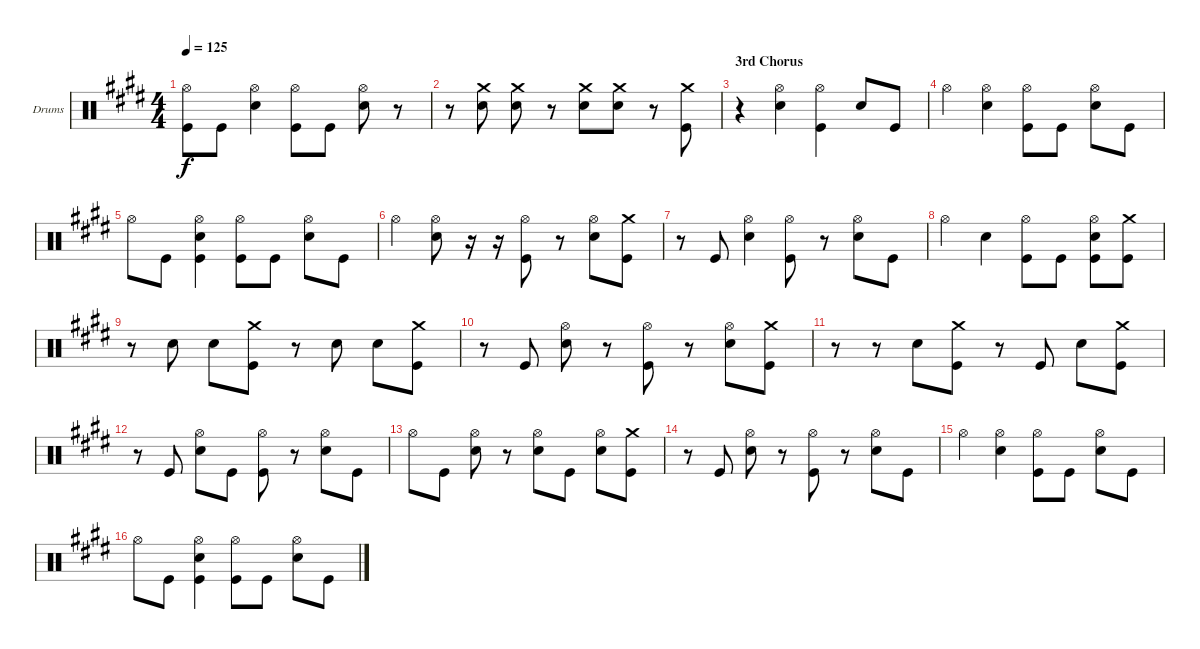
\bracketExtendMode groupsimilarinstruments
\firstSystemTrackNameOrientation horizontal
\otherSystemsTrackNameOrientation horizontal
\track ("Drumkit" "Drums") {instrument percussion}
\staff {score}
\articulation defaults
\ts (4 4)
\tempo 125
\clef neutral
\ks e
("Hi-Hat (open)" "Kick (hit)"{t}).8{dy f} "Kick (hit)".8 ("Hi-Hat (open)" "Snare (hit) 2").4 ("Hi-Hat (open)" "Kick (hit)").8 "Kick (hit)".8 ("Hi-Hat (open)" "Snare (hit) 2").8 r.8 |
r.8 ("Crash medium (hit)" "Snare (hit) 2").8 ("Crash medium (hit)" "Snare (hit) 2").8 r.8 ("Crash medium (hit)" "Snare (hit) 2").8 ("Crash medium (hit)" "Snare (hit) 2").8 r.8 ("Crash medium (hit)" "Kick (hit)").8 |
\section ("" "3rd Chorus")
r.4 ("Hi-Hat (open)" "Snare (hit) 2").4 ("Hi-Hat (open)" "Kick (hit)").4 "Snare (hit) 2".8 "Kick (hit)".8 |
"Hi-Hat (open)".4 ("Hi-Hat (open)" "Snare (hit) 2").4 ("Hi-Hat (open)" "Kick (hit)").8 "Kick (hit)".8 ("Hi-Hat (open)" "Snare (hit) 2").8 "Kick (hit)".8 |
"Hi-Hat (open)".8 "Kick (hit)".8 ("Hi-Hat (open)" "Snare (hit) 2" "Kick (hit)").4 ("Hi-Hat (open)" "Kick (hit)").8 "Kick (hit)".8 ("Hi-Hat (open)" "Snare (hit) 2").8 "Kick (hit)".8 |
"Hi-Hat (open)".4 ("Hi-Hat (open)" "Snare (hit) 2").8 r.16 r.16 ("Hi-Hat (open)" "Kick (hit)").8 r.8 ("Hi-Hat (open)" "Snare (hit) 2").8 ("Crash medium (hit)" "Kick (hit)").8 |
r.8 "Kick (hit)".8 ("Hi-Hat (open)" "Snare (hit) 2").4 ("Hi-Hat (open)" "Kick (hit)").8 r.8 ("Hi-Hat (open)" "Snare (hit) 2").8 "Kick (hit)".8 |
"Hi-Hat (open)".4 "Snare (hit) 2".4 ("Hi-Hat (open)" "Kick (hit)").8 "Kick (hit)".8 ("Hi-Hat (open)" "Snare (hit) 2" "Kick (hit)").8 ("Crash medium (hit)" "Kick (hit)").8 |
r.8 "Snare (hit) 2".8 "Snare (hit) 2".8 ("Crash medium (hit)" "Kick (hit)").8 r.8 "Snare (hit) 2".8 "Snare (hit) 2".8 ("Crash medium (hit)" "Kick (hit)").8 |
r.8 "Kick (hit)".8 ("Hi-Hat (open)" "Snare (hit) 2").8 r.8 ("Hi-Hat (open)" "Kick (hit)").8 r.8 ("Hi-Hat (open)" "Snare (hit) 2").8 ("Crash medium (hit)" "Kick (hit)").8 |
r.8 r.8 "Snare (hit) 2".8 ("Crash medium (hit)" "Kick (hit)").8 r.8 "Kick (hit)".8 "Snare (hit) 2".8 ("Crash medium (hit)" "Kick (hit)").8 |
r.8 "Kick (hit)".8 ("Hi-Hat (open)" "Snare (hit) 2").8 "Kick (hit)".8 ("Hi-Hat (open)" "Kick (hit)").8 r.8 ("Hi-Hat (open)" "Snare (hit) 2").8 "Kick (hit)".8 |
"Hi-Hat (open)".8 "Kick (hit)".8 ("Hi-Hat (open)" "Snare (hit) 2").8 r.8 ("Hi-Hat (open)" "Snare (hit) 2").8 "Kick (hit)".8 ("Hi-Hat (open)" "Snare (hit) 2").8 ("Crash medium (hit)" "Kick (hit)").8 |
r.8 "Kick (hit)".8 ("Hi-Hat (open)" "Snare (hit) 2").8 r.8 ("Hi-Hat (open)" "Kick (hit)").8 r.8 ("Hi-Hat (open)" "Snare (hit) 2").8 "Kick (hit)".8 |
"Hi-Hat (open)".4 ("Hi-Hat (open)" "Snare (hit) 2").4 ("Hi-Hat (open)" "Kick (hit)").8 "Kick (hit)".8 ("Hi-Hat (open)" "Snare (hit) 2").8 "Kick (hit)".8 |
"Hi-Hat (open)".8 "Kick (hit)".8 ("Hi-Hat (open)" "Snare (hit) 2" "Kick (hit)").4 ("Hi-Hat (open)" "Kick (hit)").8 "Kick (hit)".8 ("Hi-Hat (open)" "Snare (hit) 2").8 "Kick (hit)".8
